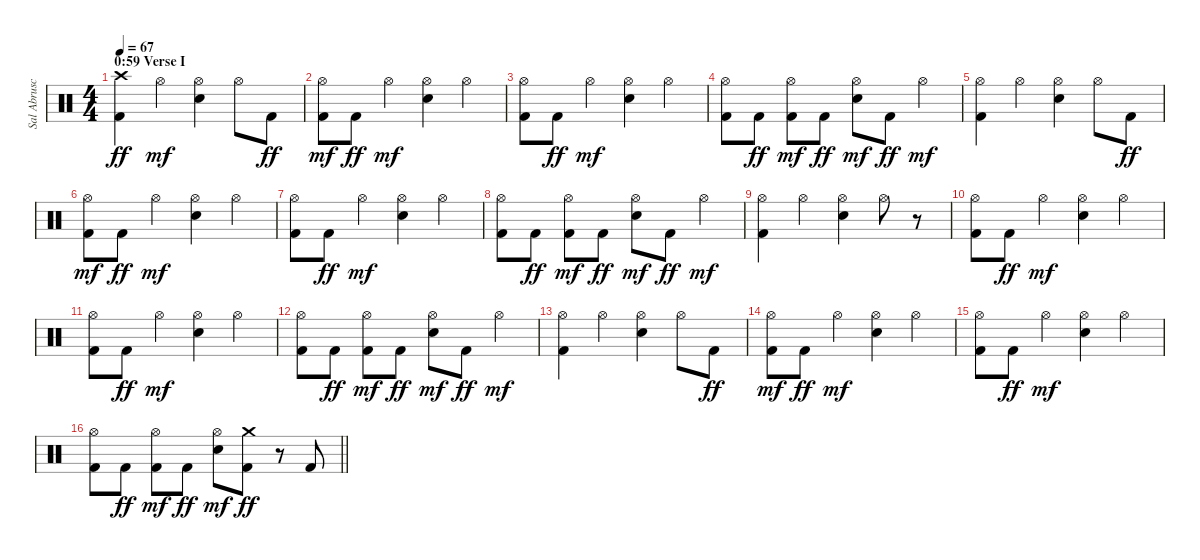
\track ("Sal Abruscato (Drums)" "Sal Abrusc") {instrument percussion}
\staff {score}
\articulation defaults
\ts (4 4)
\section ("" "0:59 Verse I")
\tempo 67
\clef neutral
\ks c
("Kick (hit) 2" "Crash high (hit)").4{dy ff} "Hi-Hat (open)".4{dy mf} ("Electric Snare (hit)" "Hi-Hat (open)").4 "Hi-Hat (open)".8 "Kick (hit) 2".8{dy ff} |
("Kick (hit) 2" "Hi-Hat (open)").8{dy mf} "Kick (hit) 2".8{dy ff} "Hi-Hat (open)".4{dy mf} ("Electric Snare (hit)" "Hi-Hat (open)").4 "Hi-Hat (open)".4 |
("Kick (hit) 2" "Hi-Hat (open)").8 "Kick (hit) 2".8{dy ff} "Hi-Hat (open)".4{dy mf} ("Electric Snare (hit)" "Hi-Hat (open)").4 "Hi-Hat (open)".4 |
("Kick (hit) 2" "Hi-Hat (open)").8 "Kick (hit) 2".8{dy ff} ("Kick (hit) 2" "Hi-Hat (open)").8{dy mf} "Kick (hit) 2".8{dy ff} ("Electric Snare (hit)" "Hi-Hat (open)").8{dy mf} "Kick (hit) 2".8{dy ff} "Hi-Hat (open)".4{dy mf} |
("Kick (hit) 2" "Hi-Hat (open)").4 "Hi-Hat (open)".4 ("Electric Snare (hit)" "Hi-Hat (open)").4 "Hi-Hat (open)".8 "Kick (hit) 2".8{dy ff} |
("Kick (hit) 2" "Hi-Hat (open)").8{dy mf} "Kick (hit) 2".8{dy ff} "Hi-Hat (open)".4{dy mf} ("Electric Snare (hit)" "Hi-Hat (open)").4 "Hi-Hat (open)".4 |
("Kick (hit) 2" "Hi-Hat (open)").8 "Kick (hit) 2".8{dy ff} "Hi-Hat (open)".4{dy mf} ("Electric Snare (hit)" "Hi-Hat (open)").4 "Hi-Hat (open)".4 |
("Kick (hit) 2" "Hi-Hat (open)").8 "Kick (hit) 2".8{dy ff} ("Kick (hit) 2" "Hi-Hat (open)").8{dy mf} "Kick (hit) 2".8{dy ff} ("Electric Snare (hit)" "Hi-Hat (open)").8{dy mf} "Kick (hit) 2".8{dy ff} "Hi-Hat (open)".4{dy mf} |
("Kick (hit) 2" "Hi-Hat (open)").4 "Hi-Hat (open)".4 ("Electric Snare (hit)" "Hi-Hat (open)").4 "Hi-Hat (open)".8 r.8 |
("Kick (hit) 2" "Hi-Hat (open)").8 "Kick (hit) 2".8{dy ff} "Hi-Hat (open)".4{dy mf} ("Electric Snare (hit)" "Hi-Hat (open)").4 "Hi-Hat (open)".4 |
("Kick (hit) 2" "Hi-Hat (open)").8 "Kick (hit) 2".8{dy ff} "Hi-Hat (open)".4{dy mf} ("Electric Snare (hit)" "Hi-Hat (open)").4 "Hi-Hat (open)".4 |
("Kick (hit) 2" "Hi-Hat (open)").8 "Kick (hit) 2".8{dy ff} ("Kick (hit) 2" "Hi-Hat (open)").8{dy mf} "Kick (hit) 2".8{dy ff} ("Electric Snare (hit)" "Hi-Hat (open)").8{dy mf} "Kick (hit) 2".8{dy ff} "Hi-Hat (open)".4{dy mf} |
("Kick (hit) 2" "Hi-Hat (open)").4 "Hi-Hat (open)".4 ("Electric Snare (hit)" "Hi-Hat (open)").4 "Hi-Hat (open)".8 "Kick (hit) 2".8{dy ff} |
("Kick (hit) 2" "Hi-Hat (open)").8{dy mf} "Kick (hit) 2".8{dy ff} "Hi-Hat (open)".4{dy mf} ("Electric Snare (hit)" "Hi-Hat (open)").4 "Hi-Hat (open)".4 |
("Kick (hit) 2" "Hi-Hat (open)").8 "Kick (hit) 2".8{dy ff} "Hi-Hat (open)".4{dy mf} ("Electric Snare (hit)" "Hi-Hat (open)").4 "Hi-Hat (open)".4 |
\barLineRight lightlight
("Kick (hit) 2" "Hi-Hat (open)").8 "Kick (hit) 2".8{dy ff} ("Kick (hit) 2" "Hi-Hat (open)").8{dy mf} "Kick (hit) 2".8{dy ff} ("Electric Snare (hit)" "Hi-Hat (open)").8{dy mf} ("Kick (hit) 2" "Crash medium (hit)").8{dy ff} r.8 "Kick (hit) 2".8
